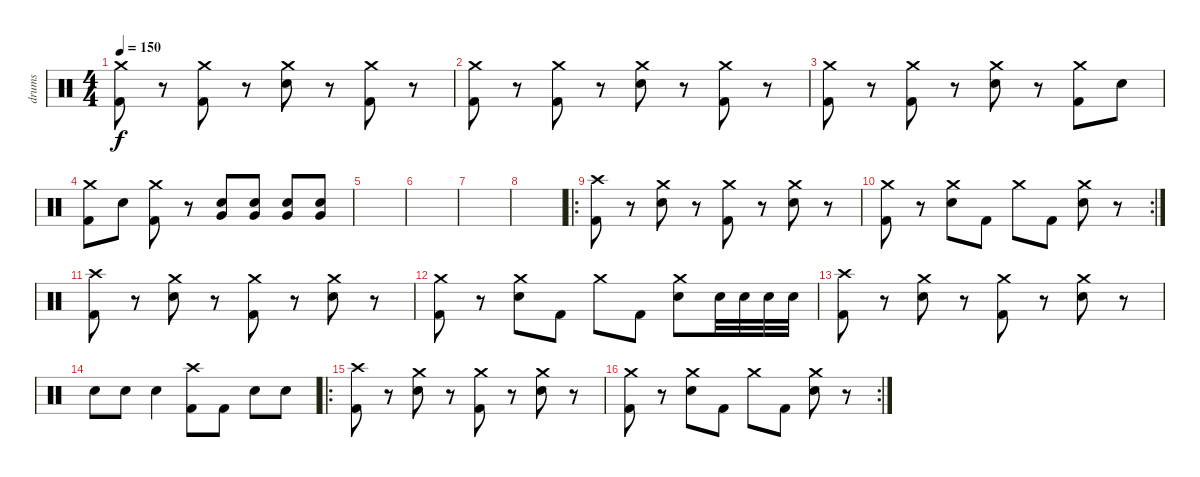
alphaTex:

\track ("drums" "drums") {instrument percussion}
\staff {score}
\articulation defaults
\ts (4 4)
\tempo 150
\clef neutral
\ks c
("Crash medium (hit)" "Kick (hit) 2").8{dy f} r.8 ("Crash medium (hit)" "Kick (hit) 2").8 r.8 ("Crash medium (hit)" "Snare (hit) 2").8 r.8 ("Crash medium (hit)" "Kick (hit) 2").8 r.8 |
("Crash medium (hit)" "Kick (hit) 2").8 r.8 ("Crash medium (hit)" "Kick (hit) 2").8 r.8 ("Crash medium (hit)" "Snare (hit) 2").8 r.8 ("Crash medium (hit)" "Kick (hit) 2").8 r.8 |
("Crash medium (hit)" "Kick (hit) 2").8 r.8 ("Crash medium (hit)" "Kick (hit) 2").8 r.8 ("Crash medium (hit)" "Snare (hit) 2").8 r.8 ("Crash medium (hit)" "Kick (hit) 2").8 "Snare (hit) 2".8 |
("Crash medium (hit)" "Kick (hit) 2").8 "Snare (hit) 2".8 ("Crash medium (hit)" "Kick (hit) 2").8 r.8 ("Very Low Tom (hit)" "Snare (hit) 2").8 ("Very Low Tom (hit)" "Snare (hit) 2").8 ("Very Low Tom (hit)" "Snare (hit) 2").8 ("Very Low Tom (hit)" "Snare (hit) 2").8 |
|
|
|
|
\ro
("Crash high (hit)" "Kick (hit) 2").8 r.8 ("Crash medium (hit)" "Snare (hit) 2").8 r.8 ("Crash medium (hit)" "Kick (hit) 2").8 r.8 ("Crash medium (hit)" "Snare (hit) 2").8 r.8 |
\rc 2
("Crash medium (hit)" "Kick (hit) 2").8 r.8 ("Crash medium (hit)" "Snare (hit) 2").8 "Kick (hit) 2".8 "Crash medium (hit)".8 "Kick (hit) 2".8 ("Crash medium (hit)" "Snare (hit) 2").8 r.8 |
("Crash high (hit)" "Kick (hit) 2").8 r.8 ("Crash medium (hit)" "Snare (hit) 2").8 r.8 ("Crash medium (hit)" "Kick (hit) 2").8 r.8 ("Crash medium (hit)" "Snare (hit) 2").8 r.8 |
("Crash medium (hit)" "Kick (hit) 2").8 r.8 ("Crash medium (hit)" "Snare (hit) 2").8 "Kick (hit) 2".8 "Crash medium (hit)".8 "Kick (hit) 2".8 ("Crash medium (hit)" "Snare (hit) 2").8 "Snare (hit) 2".32 "Snare (hit) 2".32 "Snare (hit) 2".32 "Snare (hit) 2".32 |
("Crash high (hit)" "Kick (hit) 2").8 r.8 ("Crash medium (hit)" "Snare (hit) 2").8 r.8 ("Crash medium (hit)" "Kick (hit) 2").8 r.8 ("Crash medium (hit)" "Snare (hit) 2").8 r.8 |
"Snare (hit) 2".8 "Snare (hit) 2".8 "Snare (hit) 2".4 ("Crash high (hit)" "Kick (hit) 2").8 "Kick (hit) 2".8 "Snare (hit) 2".8 "Snare (hit) 2".8 |
\ro
("Crash high (hit)" "Kick (hit) 2").8 r.8 ("Crash medium (hit)" "Snare (hit) 2").8 r.8 ("Crash medium (hit)" "Kick (hit) 2").8 r.8 ("Crash medium (hit)" "Snare (hit) 2").8 r.8 |
\rc 2
("Crash medium (hit)" "Kick (hit) 2").8 r.8 ("Crash medium (hit)" "Snare (hit) 2").8 "Kick (hit) 2".8 "Crash medium (hit)".8 "Kick (hit) 2".8 ("Crash medium (hit)" "Snare (hit) 2").8 r.8
